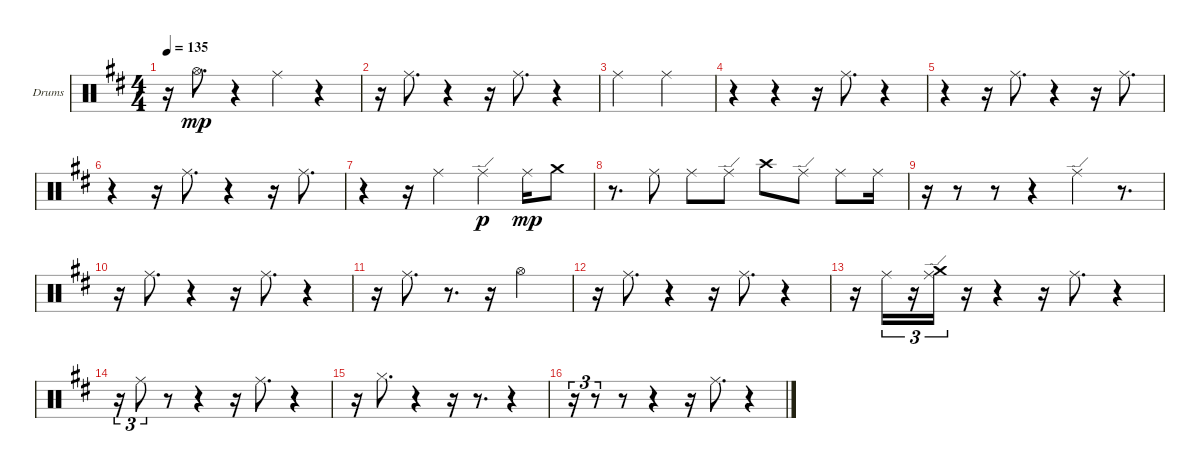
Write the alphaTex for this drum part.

\bracketExtendMode groupsimilarinstruments
\firstSystemTrackNameOrientation horizontal
\otherSystemsTrackNameOrientation horizontal
\track ("OH" "Drums") {instrument percussion}
\staff {score}
\articulation defaults
\ts (4 4)
\tempo 135
\clef neutral
\scale
0.281853
\ks d
r.16{dy mp} "Hi-Hat (open)".8{d} r.4 "Ride (middle)".4 r.4 |
\scale
0.301158 r.16 "Ride (middle)".8{d} r.4 r.16 "Ride (middle)".8{d} r.4 |
"Ride (middle)".2 "Ride (middle)".2 |
r.4 r.4 r.16 "Ride (middle)".8{d} r.4 |
r.4 r.16 "Ride (middle)".8{d} r.4 r.16 "Ride (middle)".8{d} |
r.4 r.16 "Ride (middle)".8{d} r.4 r.16 "Ride (middle)".8{d} |
r.4 r.16 "Ride (middle)".4 "Ride (edge)".4{dy p} "Ride (middle)".16{dy mp} "Crash medium (hit)".8 |
r.8{d} "Ride (middle)".8 "Ride (middle)".8 "Ride (edge)".8 "Crash high (hit)".8 "Ride (edge)".8 "Ride (middle)".8 "Ride (middle)".16 |
r.16 r.8 r.8 r.4 "Ride (edge)".4 r.8{d} |
r.16 "Ride (middle)".8{d} r.4 r.16 "Ride (middle)".8{d} r.4 |
r.16 "Ride (middle)".8{d} r.8{d} r.16 "Hi-Hat (open)".2 |
r.16 "Ride (middle)".8{d} r.4 r.16 "Ride (middle)".8{d} r.4 |
r.16 "Ride (middle)".16{tu (3 2)} r.16{tu (3 2)} ("Ride (edge)" "Crash medium (hit)").16{tu (3 2)} r.16 r.4 r.16 "Ride (middle)".8{d} r.4 |
r.16{tu (3 2)} "Ride (middle)".8{tu (3 2)} r.8 r.4 r.16 "Ride (middle)".8{d} r.4 |
r.16 "Hi-Hat (closed)".8{d} r.4 r.16 r.8{d} r.4 |
r.16{tu (3 2)} r.8{tu (3 2)} r.8 r.4 r.16 "Ride (middle)".8{d} r.4
